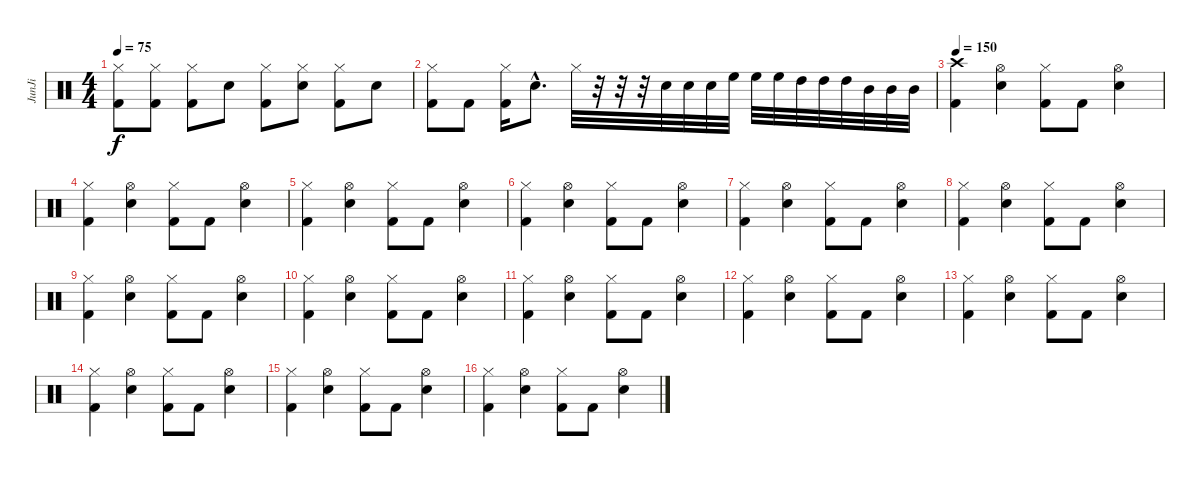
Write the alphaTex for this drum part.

\track ("JunJi" "JunJi") {instrument percussion}
\staff {score}
\articulation defaults
\ts (4 4)
\tempo 75
\clef neutral
\ks c
("Kick (hit) 2" "Hi-Hat (closed)").8{dy f volume 16} ("Kick (hit) 2" "Hi-Hat (closed)").8 ("Kick (hit) 2" "Hi-Hat (closed)").8 "Electric Snare (hit)".8 ("Kick (hit) 2" "Hi-Hat (closed)").8 ("Electric Snare (hit)" "Hi-Hat (closed)").8 ("Kick (hit) 2" "Hi-Hat (closed)").8 "Electric Snare (hit)".8 |
("Kick (hit) 2" "Hi-Hat (closed)").8 "Kick (hit) 2".8 ("Kick (hit) 2" "Hi-Hat (closed)").16 "Electric Snare (hit)"{hac}.8{d} "Hi-Hat (closed)".32 r.32 r.32 r.32 "Electric Snare (hit)".32 "Electric Snare (hit)".32 "Electric Snare (hit)".32 "High Floor Tom (hit)".32 "High Floor Tom (hit)".32 "High Floor Tom (hit)".32 "High Tom (hit)".32 "High Tom (hit)".32 "High Tom (hit)".32 "Mid Tom (hit)".32 "Mid Tom (hit)".32 "Mid Tom (hit)".32 |
\tempo 150
("Crash high (hit)" "Kick (hit) 2").4 ("Electric Snare (hit)" "Hi-Hat (open)").4 ("Hi-Hat (closed)" "Kick (hit) 2").8 "Kick (hit) 2".8 ("Electric Snare (hit)" "Hi-Hat (open)").4 |
("Hi-Hat (closed)" "Kick (hit) 2").4 ("Electric Snare (hit)" "Hi-Hat (open)").4 ("Hi-Hat (closed)" "Kick (hit) 2").8 "Kick (hit) 2".8 ("Electric Snare (hit)" "Hi-Hat (open)").4 |
("Hi-Hat (closed)" "Kick (hit) 2").4 ("Electric Snare (hit)" "Hi-Hat (open)").4 ("Hi-Hat (closed)" "Kick (hit) 2").8 "Kick (hit) 2".8 ("Electric Snare (hit)" "Hi-Hat (open)").4 |
("Hi-Hat (closed)" "Kick (hit) 2").4 ("Electric Snare (hit)" "Hi-Hat (open)").4 ("Hi-Hat (closed)" "Kick (hit) 2").8 "Kick (hit) 2".8 ("Electric Snare (hit)" "Hi-Hat (open)").4 |
("Hi-Hat (closed)" "Kick (hit) 2").4 ("Electric Snare (hit)" "Hi-Hat (open)").4 ("Hi-Hat (closed)" "Kick (hit) 2").8 "Kick (hit) 2".8 ("Electric Snare (hit)" "Hi-Hat (open)").4 |
("Hi-Hat (closed)" "Kick (hit) 2").4 ("Electric Snare (hit)" "Hi-Hat (open)").4 ("Hi-Hat (closed)" "Kick (hit) 2").8 "Kick (hit) 2".8 ("Electric Snare (hit)" "Hi-Hat (open)").4 |
("Hi-Hat (closed)" "Kick (hit) 2").4 ("Electric Snare (hit)" "Hi-Hat (open)").4 ("Hi-Hat (closed)" "Kick (hit) 2").8 "Kick (hit) 2".8 ("Electric Snare (hit)" "Hi-Hat (open)").4 |
("Hi-Hat (closed)" "Kick (hit) 2").4 ("Electric Snare (hit)" "Hi-Hat (open)").4 ("Hi-Hat (closed)" "Kick (hit) 2").8 "Kick (hit) 2".8 ("Electric Snare (hit)" "Hi-Hat (open)").4 |
("Hi-Hat (closed)" "Kick (hit) 2").4 ("Electric Snare (hit)" "Hi-Hat (open)").4 ("Hi-Hat (closed)" "Kick (hit) 2").8 "Kick (hit) 2".8 ("Electric Snare (hit)" "Hi-Hat (open)").4 |
("Hi-Hat (closed)" "Kick (hit) 2").4 ("Electric Snare (hit)" "Hi-Hat (open)").4 ("Hi-Hat (closed)" "Kick (hit) 2").8 "Kick (hit) 2".8 ("Electric Snare (hit)" "Hi-Hat (open)").4 |
("Hi-Hat (closed)" "Kick (hit) 2").4 ("Electric Snare (hit)" "Hi-Hat (open)").4 ("Hi-Hat (closed)" "Kick (hit) 2").8 "Kick (hit) 2".8 ("Electric Snare (hit)" "Hi-Hat (open)").4 |
("Hi-Hat (closed)" "Kick (hit) 2").4 ("Electric Snare (hit)" "Hi-Hat (open)").4 ("Hi-Hat (closed)" "Kick (hit) 2").8 "Kick (hit) 2".8 ("Electric Snare (hit)" "Hi-Hat (open)").4 |
("Hi-Hat (closed)" "Kick (hit) 2").4 ("Electric Snare (hit)" "Hi-Hat (open)").4 ("Hi-Hat (closed)" "Kick (hit) 2").8 "Kick (hit) 2".8 ("Electric Snare (hit)" "Hi-Hat (open)").4 |
("Hi-Hat (closed)" "Kick (hit) 2").4 ("Electric Snare (hit)" "Hi-Hat (open)").4 ("Hi-Hat (closed)" "Kick (hit) 2").8 "Kick (hit) 2".8 ("Electric Snare (hit)" "Hi-Hat (open)").4
